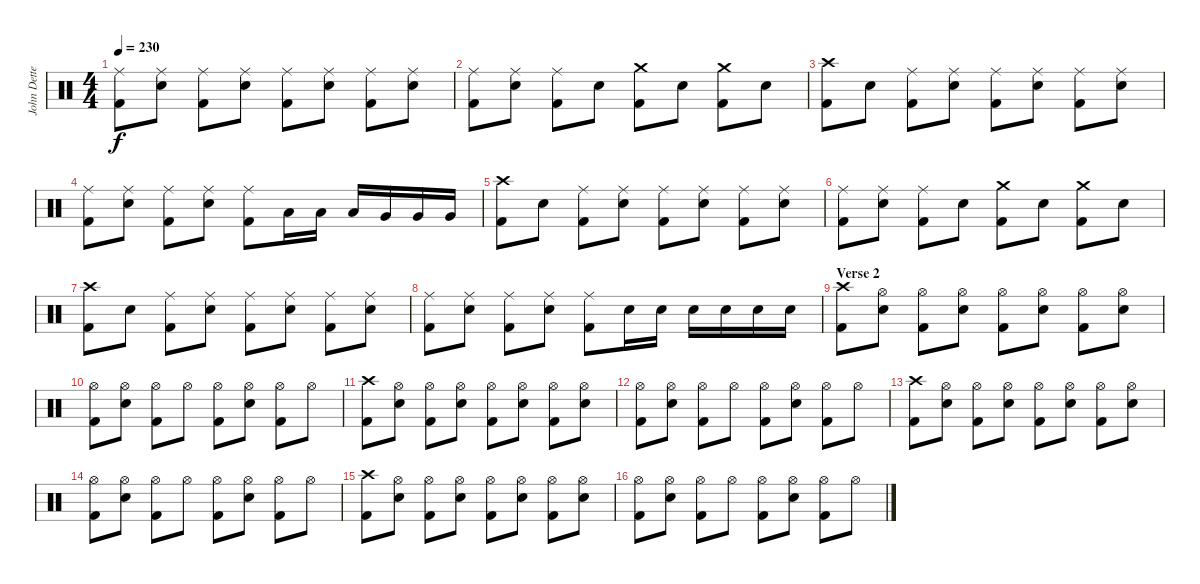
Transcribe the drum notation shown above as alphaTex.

\track ("John Dette" "John Dette") {instrument percussion}
\staff {score}
\articulation defaults
\ts (4 4)
\tempo 230
\clef neutral
\ks c
("Ride (middle)" "Kick (hit) 2").8{dy f} ("Ride (middle)" "Snare (hit) 2").8 ("Ride (middle)" "Kick (hit) 2").8 ("Ride (middle)" "Snare (hit) 2").8 ("Ride (middle)" "Kick (hit) 2").8 ("Ride (middle)" "Snare (hit) 2").8 ("Ride (middle)" "Kick (hit) 2").8 ("Ride (middle)" "Snare (hit) 2").8 |
("Ride (middle)" "Kick (hit) 2").8 ("Ride (middle)" "Snare (hit) 2").8 ("Ride (middle)" "Kick (hit) 2").8 "Snare (hit) 2".8 ("Crash medium (hit)" "Kick (hit) 2").8 "Snare (hit) 2".8 ("Crash medium (hit)" "Kick (hit) 2").8 "Snare (hit) 2".8 |
("Crash high (hit)" "Kick (hit) 2").8 "Snare (hit) 2".8 ("Ride (middle)" "Kick (hit) 2").8 ("Ride (middle)" "Snare (hit) 2").8 ("Ride (middle)" "Kick (hit) 2").8 ("Ride (middle)" "Snare (hit) 2").8 ("Ride (middle)" "Kick (hit) 2").8 ("Ride (middle)" "Snare (hit) 2").8 |
("Ride (middle)" "Kick (hit) 2").8 ("Ride (middle)" "Snare (hit) 2").8 ("Ride (middle)" "Kick (hit) 2").8 ("Ride (middle)" "Snare (hit) 2").8 ("Ride (middle)" "Kick (hit) 2").8 "Low Tom (hit)".16 "Low Tom (hit)".16 "Low Tom (hit)".16 "Very Low Tom (hit)".16 "Very Low Tom (hit)".16 "Very Low Tom (hit)".16 |
("Crash high (hit)" "Kick (hit) 2").8 "Snare (hit) 2".8 ("Ride (middle)" "Kick (hit) 2").8 ("Ride (middle)" "Snare (hit) 2").8 ("Ride (middle)" "Kick (hit) 2").8 ("Ride (middle)" "Snare (hit) 2").8 ("Ride (middle)" "Kick (hit) 2").8 ("Ride (middle)" "Snare (hit) 2").8 |
("Ride (middle)" "Kick (hit) 2").8 ("Ride (middle)" "Snare (hit) 2").8 ("Ride (middle)" "Kick (hit) 2").8 "Snare (hit) 2".8 ("Crash medium (hit)" "Kick (hit) 2").8 "Snare (hit) 2".8 ("Crash medium (hit)" "Kick (hit) 2").8 "Snare (hit) 2".8 |
("Crash high (hit)" "Kick (hit) 2").8 "Snare (hit) 2".8 ("Ride (middle)" "Kick (hit) 2").8 ("Ride (middle)" "Snare (hit) 2").8 ("Ride (middle)" "Kick (hit) 2").8 ("Ride (middle)" "Snare (hit) 2").8 ("Ride (middle)" "Kick (hit) 2").8 ("Ride (middle)" "Snare (hit) 2").8 |
("Ride (middle)" "Kick (hit) 2").8 ("Ride (middle)" "Snare (hit) 2").8 ("Ride (middle)" "Kick (hit) 2").8 ("Ride (middle)" "Snare (hit) 2").8 ("Ride (middle)" "Kick (hit) 2").8 "Snare (hit) 2".16 "Snare (hit) 2".16 "Snare (hit) 2".16 "Snare (hit) 2".16 "Snare (hit) 2".16 "Snare (hit) 2".16 |
\section ("" "Verse 2")
("Crash high (hit)" "Kick (hit) 2").8 ("Hi-Hat (open)" "Snare (hit) 2").8 ("Hi-Hat (open)" "Kick (hit) 2").8 ("Hi-Hat (open)" "Snare (hit) 2").8 ("Hi-Hat (open)" "Kick (hit) 2").8 ("Hi-Hat (open)" "Snare (hit) 2").8 ("Hi-Hat (open)" "Kick (hit) 2").8 ("Hi-Hat (open)" "Snare (hit) 2").8 |
("Hi-Hat (open)" "Kick (hit) 2").8 ("Hi-Hat (open)" "Snare (hit) 2").8 ("Hi-Hat (open)" "Kick (hit) 2").8 "Hi-Hat (open)".8 ("Hi-Hat (open)" "Kick (hit) 2").8 ("Hi-Hat (open)" "Snare (hit) 2").8 ("Hi-Hat (open)" "Kick (hit) 2").8 "Hi-Hat (open)".8 |
("Crash high (hit)" "Kick (hit) 2").8 ("Hi-Hat (open)" "Snare (hit) 2").8 ("Hi-Hat (open)" "Kick (hit) 2").8 ("Hi-Hat (open)" "Snare (hit) 2").8 ("Hi-Hat (open)" "Kick (hit) 2").8 ("Hi-Hat (open)" "Snare (hit) 2").8 ("Hi-Hat (open)" "Kick (hit) 2").8 ("Hi-Hat (open)" "Snare (hit) 2").8 |
("Hi-Hat (open)" "Kick (hit) 2").8 ("Hi-Hat (open)" "Snare (hit) 2").8 ("Hi-Hat (open)" "Kick (hit) 2").8 "Hi-Hat (open)".8 ("Hi-Hat (open)" "Kick (hit) 2").8 ("Hi-Hat (open)" "Snare (hit) 2").8 ("Hi-Hat (open)" "Kick (hit) 2").8 "Hi-Hat (open)".8 |
("Crash high (hit)" "Kick (hit) 2").8 ("Hi-Hat (open)" "Snare (hit) 2").8 ("Hi-Hat (open)" "Kick (hit) 2").8 ("Hi-Hat (open)" "Snare (hit) 2").8 ("Hi-Hat (open)" "Kick (hit) 2").8 ("Hi-Hat (open)" "Snare (hit) 2").8 ("Hi-Hat (open)" "Kick (hit) 2").8 ("Hi-Hat (open)" "Snare (hit) 2").8 |
("Hi-Hat (open)" "Kick (hit) 2").8 ("Hi-Hat (open)" "Snare (hit) 2").8 ("Hi-Hat (open)" "Kick (hit) 2").8 "Hi-Hat (open)".8 ("Hi-Hat (open)" "Kick (hit) 2").8 ("Hi-Hat (open)" "Snare (hit) 2").8 ("Hi-Hat (open)" "Kick (hit) 2").8 "Hi-Hat (open)".8 |
("Crash high (hit)" "Kick (hit) 2").8 ("Hi-Hat (open)" "Snare (hit) 2").8 ("Hi-Hat (open)" "Kick (hit) 2").8 ("Hi-Hat (open)" "Snare (hit) 2").8 ("Hi-Hat (open)" "Kick (hit) 2").8 ("Hi-Hat (open)" "Snare (hit) 2").8 ("Hi-Hat (open)" "Kick (hit) 2").8 ("Hi-Hat (open)" "Snare (hit) 2").8 |
("Hi-Hat (open)" "Kick (hit) 2").8 ("Hi-Hat (open)" "Snare (hit) 2").8 ("Hi-Hat (open)" "Kick (hit) 2").8 "Hi-Hat (open)".8 ("Hi-Hat (open)" "Kick (hit) 2").8 ("Hi-Hat (open)" "Snare (hit) 2").8 ("Hi-Hat (open)" "Kick (hit) 2").8 "Hi-Hat (open)".8
